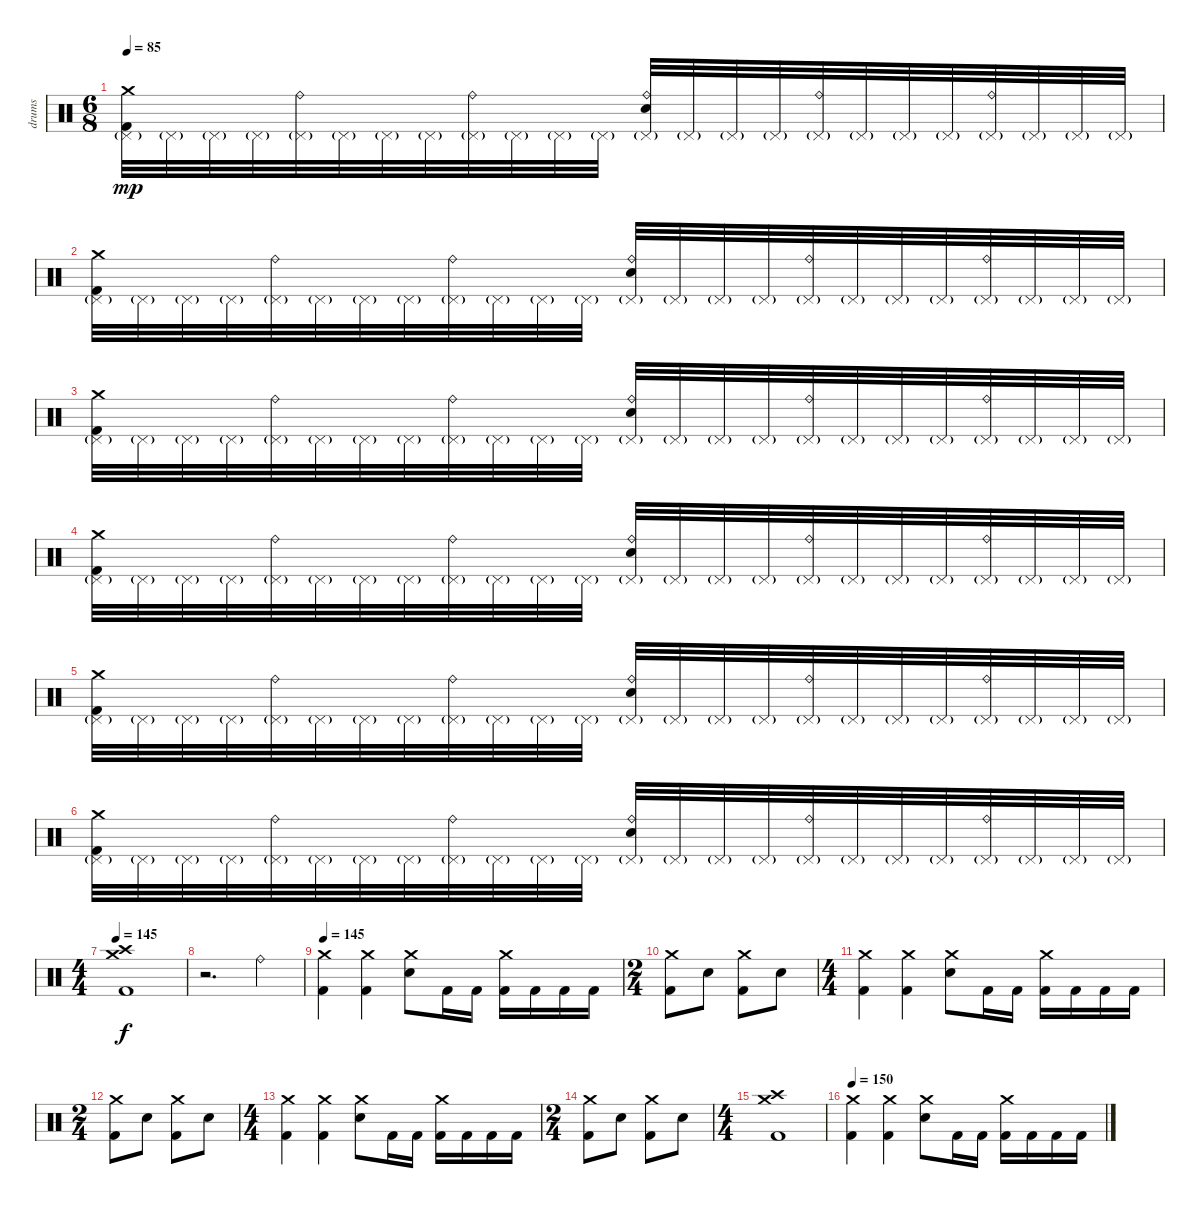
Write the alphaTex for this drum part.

\track ("drums" "drums") {instrument percussion}
\staff {score}
\articulation defaults
\ts (6 8)
\tempo 85
\clef neutral
\ks c
("Crash medium (hit)" "Pedal Hi-Hat (hit)"{g} "Kick (hit) 2").32{dy mp balance 8} "Pedal Hi-Hat (hit)"{g}.32 "Pedal Hi-Hat (hit)"{g}.32 "Pedal Hi-Hat (hit)"{g}.32 ("Ride (bell)" "Pedal Hi-Hat (hit)"{g}).32 "Pedal Hi-Hat (hit)"{g}.32 "Pedal Hi-Hat (hit)"{g}.32 "Pedal Hi-Hat (hit)"{g}.32 ("Ride (bell)" "Pedal Hi-Hat (hit)"{g}).32 "Pedal Hi-Hat (hit)"{g}.32 "Pedal Hi-Hat (hit)"{g}.32 "Pedal Hi-Hat (hit)"{g}.32 ("Ride (bell)" "Pedal Hi-Hat (hit)"{g} "Electric Snare (hit)").32 "Pedal Hi-Hat (hit)"{g}.32 "Pedal Hi-Hat (hit)"{g}.32 "Pedal Hi-Hat (hit)"{g}.32 ("Ride (bell)" "Pedal Hi-Hat (hit)"{g}).32 "Pedal Hi-Hat (hit)"{g}.32 "Pedal Hi-Hat (hit)"{g}.32 "Pedal Hi-Hat (hit)"{g}.32 ("Ride (bell)" "Pedal Hi-Hat (hit)"{g}).32 "Pedal Hi-Hat (hit)"{g}.32 "Pedal Hi-Hat (hit)"{g}.32 "Pedal Hi-Hat (hit)"{g}.32 |
("Crash medium (hit)" "Pedal Hi-Hat (hit)"{g} "Kick (hit) 2").32 "Pedal Hi-Hat (hit)"{g}.32 "Pedal Hi-Hat (hit)"{g}.32 "Pedal Hi-Hat (hit)"{g}.32 ("Ride (bell)" "Pedal Hi-Hat (hit)"{g}).32 "Pedal Hi-Hat (hit)"{g}.32 "Pedal Hi-Hat (hit)"{g}.32 "Pedal Hi-Hat (hit)"{g}.32 ("Ride (bell)" "Pedal Hi-Hat (hit)"{g}).32 "Pedal Hi-Hat (hit)"{g}.32 "Pedal Hi-Hat (hit)"{g}.32 "Pedal Hi-Hat (hit)"{g}.32 ("Ride (bell)" "Pedal Hi-Hat (hit)"{g} "Electric Snare (hit)").32 "Pedal Hi-Hat (hit)"{g}.32 "Pedal Hi-Hat (hit)"{g}.32 "Pedal Hi-Hat (hit)"{g}.32 ("Ride (bell)" "Pedal Hi-Hat (hit)"{g}).32 "Pedal Hi-Hat (hit)"{g}.32 "Pedal Hi-Hat (hit)"{g}.32 "Pedal Hi-Hat (hit)"{g}.32 ("Ride (bell)" "Pedal Hi-Hat (hit)"{g}).32 "Pedal Hi-Hat (hit)"{g}.32 "Pedal Hi-Hat (hit)"{g}.32 "Pedal Hi-Hat (hit)"{g}.32 |
("Crash medium (hit)" "Pedal Hi-Hat (hit)"{g} "Kick (hit) 2").32 "Pedal Hi-Hat (hit)"{g}.32 "Pedal Hi-Hat (hit)"{g}.32 "Pedal Hi-Hat (hit)"{g}.32 ("Ride (bell)" "Pedal Hi-Hat (hit)"{g}).32 "Pedal Hi-Hat (hit)"{g}.32 "Pedal Hi-Hat (hit)"{g}.32 "Pedal Hi-Hat (hit)"{g}.32 ("Ride (bell)" "Pedal Hi-Hat (hit)"{g}).32 "Pedal Hi-Hat (hit)"{g}.32 "Pedal Hi-Hat (hit)"{g}.32 "Pedal Hi-Hat (hit)"{g}.32 ("Ride (bell)" "Pedal Hi-Hat (hit)"{g} "Electric Snare (hit)").32 "Pedal Hi-Hat (hit)"{g}.32 "Pedal Hi-Hat (hit)"{g}.32 "Pedal Hi-Hat (hit)"{g}.32 ("Ride (bell)" "Pedal Hi-Hat (hit)"{g}).32 "Pedal Hi-Hat (hit)"{g}.32 "Pedal Hi-Hat (hit)"{g}.32 "Pedal Hi-Hat (hit)"{g}.32 ("Ride (bell)" "Pedal Hi-Hat (hit)"{g}).32 "Pedal Hi-Hat (hit)"{g}.32 "Pedal Hi-Hat (hit)"{g}.32 "Pedal Hi-Hat (hit)"{g}.32 |
("Crash medium (hit)" "Pedal Hi-Hat (hit)"{g} "Kick (hit) 2").32 "Pedal Hi-Hat (hit)"{g}.32 "Pedal Hi-Hat (hit)"{g}.32 "Pedal Hi-Hat (hit)"{g}.32 ("Ride (bell)" "Pedal Hi-Hat (hit)"{g}).32 "Pedal Hi-Hat (hit)"{g}.32 "Pedal Hi-Hat (hit)"{g}.32 "Pedal Hi-Hat (hit)"{g}.32 ("Ride (bell)" "Pedal Hi-Hat (hit)"{g}).32 "Pedal Hi-Hat (hit)"{g}.32 "Pedal Hi-Hat (hit)"{g}.32 "Pedal Hi-Hat (hit)"{g}.32 ("Ride (bell)" "Pedal Hi-Hat (hit)"{g} "Electric Snare (hit)").32 "Pedal Hi-Hat (hit)"{g}.32 "Pedal Hi-Hat (hit)"{g}.32 "Pedal Hi-Hat (hit)"{g}.32 ("Ride (bell)" "Pedal Hi-Hat (hit)"{g}).32 "Pedal Hi-Hat (hit)"{g}.32 "Pedal Hi-Hat (hit)"{g}.32 "Pedal Hi-Hat (hit)"{g}.32 ("Ride (bell)" "Pedal Hi-Hat (hit)"{g}).32 "Pedal Hi-Hat (hit)"{g}.32 "Pedal Hi-Hat (hit)"{g}.32 "Pedal Hi-Hat (hit)"{g}.32 |
("Crash medium (hit)" "Pedal Hi-Hat (hit)"{g} "Kick (hit) 2").32 "Pedal Hi-Hat (hit)"{g}.32 "Pedal Hi-Hat (hit)"{g}.32 "Pedal Hi-Hat (hit)"{g}.32 ("Ride (bell)" "Pedal Hi-Hat (hit)"{g}).32 "Pedal Hi-Hat (hit)"{g}.32 "Pedal Hi-Hat (hit)"{g}.32 "Pedal Hi-Hat (hit)"{g}.32 ("Ride (bell)" "Pedal Hi-Hat (hit)"{g}).32 "Pedal Hi-Hat (hit)"{g}.32 "Pedal Hi-Hat (hit)"{g}.32 "Pedal Hi-Hat (hit)"{g}.32 ("Ride (bell)" "Pedal Hi-Hat (hit)"{g} "Electric Snare (hit)").32 "Pedal Hi-Hat (hit)"{g}.32 "Pedal Hi-Hat (hit)"{g}.32 "Pedal Hi-Hat (hit)"{g}.32 ("Ride (bell)" "Pedal Hi-Hat (hit)"{g}).32 "Pedal Hi-Hat (hit)"{g}.32 "Pedal Hi-Hat (hit)"{g}.32 "Pedal Hi-Hat (hit)"{g}.32 ("Ride (bell)" "Pedal Hi-Hat (hit)"{g}).32 "Pedal Hi-Hat (hit)"{g}.32 "Pedal Hi-Hat (hit)"{g}.32 "Pedal Hi-Hat (hit)"{g}.32 |
("Crash medium (hit)" "Pedal Hi-Hat (hit)"{g} "Kick (hit) 2").32 "Pedal Hi-Hat (hit)"{g}.32 "Pedal Hi-Hat (hit)"{g}.32 "Pedal Hi-Hat (hit)"{g}.32 ("Ride (bell)" "Pedal Hi-Hat (hit)"{g}).32 "Pedal Hi-Hat (hit)"{g}.32 "Pedal Hi-Hat (hit)"{g}.32 "Pedal Hi-Hat (hit)"{g}.32 ("Ride (bell)" "Pedal Hi-Hat (hit)"{g}).32 "Pedal Hi-Hat (hit)"{g}.32 "Pedal Hi-Hat (hit)"{g}.32 "Pedal Hi-Hat (hit)"{g}.32 ("Ride (bell)" "Pedal Hi-Hat (hit)"{g} "Electric Snare (hit)").32 "Pedal Hi-Hat (hit)"{g}.32 "Pedal Hi-Hat (hit)"{g}.32 "Pedal Hi-Hat (hit)"{g}.32 ("Ride (bell)" "Pedal Hi-Hat (hit)"{g}).32 "Pedal Hi-Hat (hit)"{g}.32 "Pedal Hi-Hat (hit)"{g}.32 "Pedal Hi-Hat (hit)"{g}.32 ("Ride (bell)" "Pedal Hi-Hat (hit)"{g}).32 "Pedal Hi-Hat (hit)"{g}.32 "Pedal Hi-Hat (hit)"{g}.32 "Pedal Hi-Hat (hit)"{g}.32 |
\ts (4 4)
\tempo 145
("Crash medium (hit)" "Crash high (hit)" "Kick (hit) 2").1{dy f volume 16 balance 8} |
r.2{d} "Ride (bell)".4 |
\tempo 145
("Crash medium (hit)" "Kick (hit) 2").4{balance 8} ("Crash medium (hit)" "Kick (hit) 2").4 ("Crash medium (hit)" "Electric Snare (hit)").8 "Kick (hit) 2".16 "Kick (hit) 2".16 ("Crash medium (hit)" "Kick (hit) 2").16 "Kick (hit) 2".16 "Kick (hit) 2".16 "Kick (hit) 2".16 |
\ts (2 4)
("Crash medium (hit)" "Kick (hit) 2").8 "Electric Snare (hit)".8 ("Crash medium (hit)" "Kick (hit) 2").8 "Electric Snare (hit)".8 |
\ts (4 4)
("Crash medium (hit)" "Kick (hit) 2").4 ("Crash medium (hit)" "Kick (hit) 2").4 ("Crash medium (hit)" "Electric Snare (hit)").8 "Kick (hit) 2".16 "Kick (hit) 2".16 ("Crash medium (hit)" "Kick (hit) 2").16 "Kick (hit) 2".16 "Kick (hit) 2".16 "Kick (hit) 2".16 |
\ts (2 4)
("Crash medium (hit)" "Kick (hit) 2").8 "Electric Snare (hit)".8 ("Crash medium (hit)" "Kick (hit) 2").8 "Electric Snare (hit)".8 |
\ts (4 4)
("Crash medium (hit)" "Kick (hit) 2").4 ("Crash medium (hit)" "Kick (hit) 2").4 ("Crash medium (hit)" "Electric Snare (hit)").8 "Kick (hit) 2".16 "Kick (hit) 2".16 ("Crash medium (hit)" "Kick (hit) 2").16 "Kick (hit) 2".16 "Kick (hit) 2".16 "Kick (hit) 2".16 |
\ts (2 4)
("Crash medium (hit)" "Kick (hit) 2").8 "Electric Snare (hit)".8 ("Crash medium (hit)" "Kick (hit) 2").8 "Electric Snare (hit)".8 |
\ts (4 4)
("Crash medium (hit)" "Crash high (hit)" "Kick (hit) 2").1 |
\tempo 145
\tempo 150
("Crash medium (hit)" "Kick (hit) 2").4 ("Crash medium (hit)" "Kick (hit) 2").4 ("Crash medium (hit)" "Electric Snare (hit)").8 "Kick (hit) 2".16 "Kick (hit) 2".16 ("Crash medium (hit)" "Kick (hit) 2").16 "Kick (hit) 2".16 "Kick (hit) 2".16 "Kick (hit) 2".16
